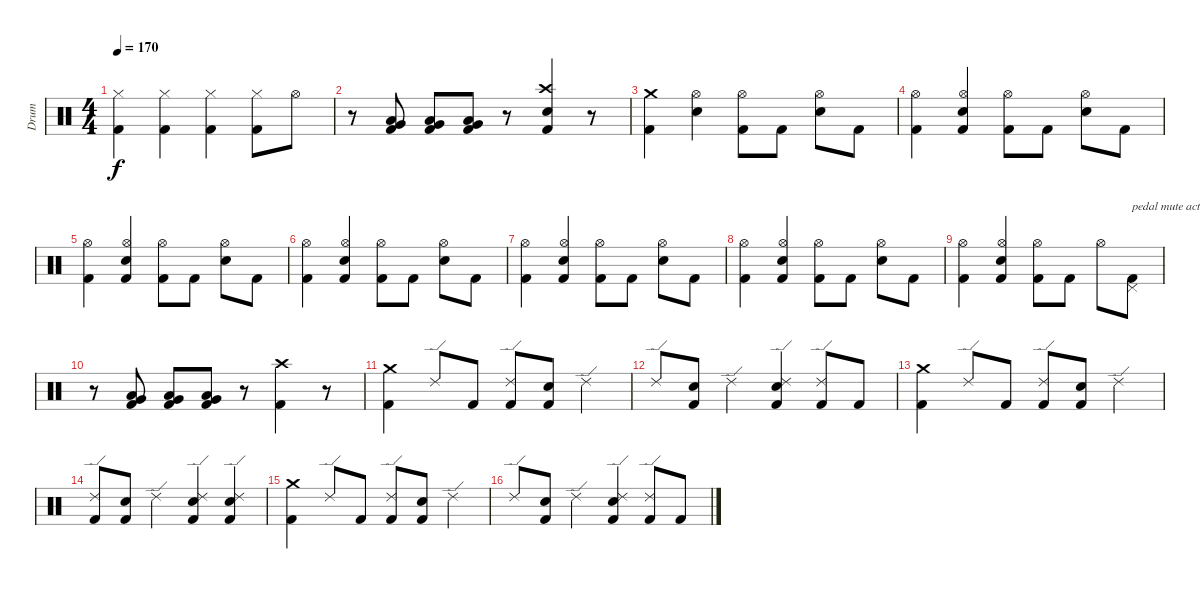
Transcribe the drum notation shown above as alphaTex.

\track ("Drum" "Drum") {instrument percussion}
\staff {score}
\articulation defaults
\ts (4 4)
\tempo 170
\clef neutral
\ks c
("Hi-Hat (closed)" "Kick (hit) 2").4{dy f} ("Hi-Hat (closed)" "Kick (hit) 2").4 ("Hi-Hat (closed)" "Kick (hit) 2").4 ("Hi-Hat (closed)" "Kick (hit) 2").8 "Hi-Hat (open)".8 |
r.8 ("Very Low Tom (hit)" "Low Floor Tom (hit)" "Kick (hit) 2").8 ("Very Low Tom (hit)" "Low Floor Tom (hit)" "Kick (hit) 2").8 ("Very Low Tom (hit)" "Low Floor Tom (hit)" "Kick (hit) 2").8 r.8 ("Crash high (hit)" "Electric Snare (hit)" "Kick (hit) 2").4 r.8 |
("Crash medium (hit)" "Kick (hit) 2").4 ("Hi-Hat (open)" "Electric Snare (hit)").4 ("Hi-Hat (open)" "Kick (hit) 2").8 "Kick (hit) 2".8 ("Hi-Hat (open)" "Electric Snare (hit)").8 "Kick (hit) 2".8 |
("Hi-Hat (open)" "Kick (hit) 2").4 ("Hi-Hat (open)" "Electric Snare (hit)" "Kick (hit) 2").4 ("Hi-Hat (open)" "Kick (hit) 2").8 "Kick (hit) 2".8 ("Hi-Hat (open)" "Electric Snare (hit)").8 "Kick (hit) 2".8 |
("Hi-Hat (open)" "Kick (hit) 2").4 ("Hi-Hat (open)" "Electric Snare (hit)" "Kick (hit) 2").4 ("Hi-Hat (open)" "Kick (hit) 2").8 "Kick (hit) 2".8 ("Hi-Hat (open)" "Electric Snare (hit)").8 "Kick (hit) 2".8 |
("Hi-Hat (open)" "Kick (hit) 2").4 ("Hi-Hat (open)" "Electric Snare (hit)" "Kick (hit) 2").4 ("Hi-Hat (open)" "Kick (hit) 2").8 "Kick (hit) 2".8 ("Hi-Hat (open)" "Electric Snare (hit)").8 "Kick (hit) 2".8 |
("Hi-Hat (open)" "Kick (hit) 2").4 ("Hi-Hat (open)" "Electric Snare (hit)" "Kick (hit) 2").4 ("Hi-Hat (open)" "Kick (hit) 2").8 "Kick (hit) 2".8 ("Hi-Hat (open)" "Electric Snare (hit)").8 "Kick (hit) 2".8 |
("Hi-Hat (open)" "Kick (hit) 2").4 ("Hi-Hat (open)" "Electric Snare (hit)" "Kick (hit) 2").4 ("Hi-Hat (open)" "Kick (hit) 2").8 "Kick (hit) 2".8 ("Hi-Hat (open)" "Electric Snare (hit)").8 "Kick (hit) 2".8 |
("Hi-Hat (open)" "Kick (hit) 2").4 ("Hi-Hat (open)" "Electric Snare (hit)" "Kick (hit) 2").4 ("Hi-Hat (open)" "Kick (hit) 2").8 "Kick (hit) 2".8 "Hi-Hat (open)".8 ("Pedal Hi-Hat (hit)" "Kick (hit) 2").8{txt "pedal mute action"} |
r.8 ("Very Low Tom (hit)" "Low Floor Tom (hit)" "Kick (hit) 2").8 ("Very Low Tom (hit)" "Low Floor Tom (hit)" "Kick (hit) 2").8 ("Very Low Tom (hit)" "Low Floor Tom (hit)" "Kick (hit) 2").8 r.8 ("Crash high (hit)" "Kick (hit) 2").4 r.8 |
("Crash medium (hit)" "Kick (hit) 2").4 "Ride (edge) 2".8 "Kick (hit) 2".8 ("Ride (edge) 2" "Kick (hit) 2").8 ("Electric Snare (hit)" "Kick (hit) 2").8 "Ride (edge) 2".4 |
"Ride (edge) 2".8 ("Electric Snare (hit)" "Kick (hit) 2").8 "Ride (edge) 2".4 ("Ride (edge) 2" "Electric Snare (hit)" "Kick (hit) 2").4 ("Ride (edge) 2" "Kick (hit) 2").8 "Kick (hit) 2".8 |
("Crash medium (hit)" "Kick (hit) 2").4 "Ride (edge) 2".8 "Kick (hit) 2".8 ("Ride (edge) 2" "Kick (hit) 2").8 ("Electric Snare (hit)" "Kick (hit) 2").8 "Ride (edge) 2".4 |
("Ride (edge) 2" "Kick (hit) 2").8 ("Electric Snare (hit)" "Kick (hit) 2").8 "Ride (edge) 2".4 ("Ride (edge) 2" "Electric Snare (hit)" "Kick (hit) 2").4 ("Ride (edge) 2" "Electric Snare (hit)" "Kick (hit) 2").4 |
("Crash medium (hit)" "Kick (hit) 2").4 "Ride (edge) 2".8 "Kick (hit) 2".8 ("Ride (edge) 2" "Kick (hit) 2").8 ("Electric Snare (hit)" "Kick (hit) 2").8 "Ride (edge) 2".4 |
"Ride (edge) 2".8 ("Electric Snare (hit)" "Kick (hit) 2").8 "Ride (edge) 2".4 ("Ride (edge) 2" "Electric Snare (hit)" "Kick (hit) 2").4 ("Ride (edge) 2" "Kick (hit) 2").8 "Kick (hit) 2".8
